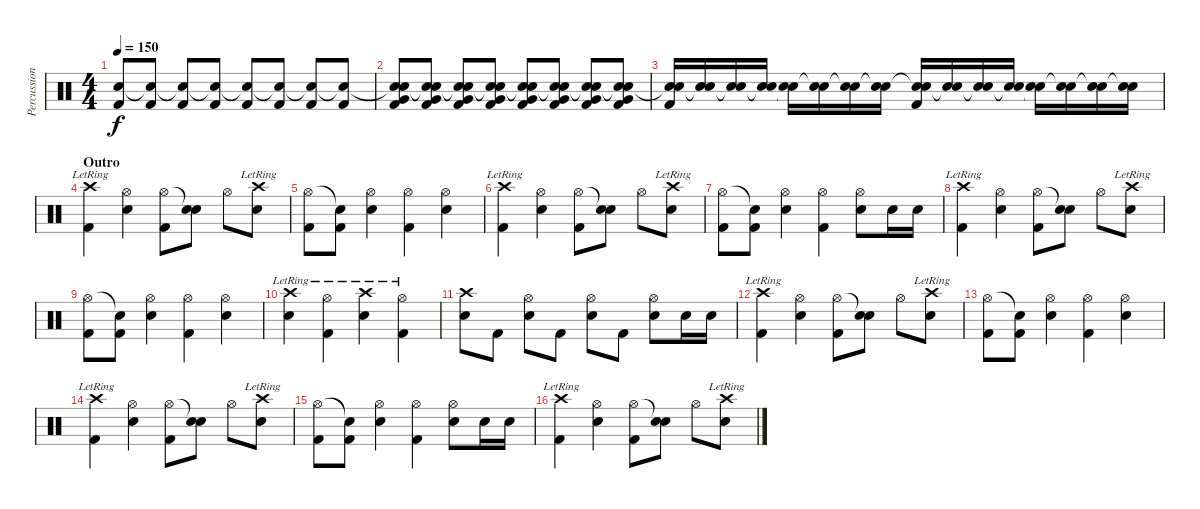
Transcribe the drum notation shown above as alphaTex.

\track ("Percussion" "Percussion") {instrument percussion}
\staff {score}
\articulation defaults
\ts (4 4)
\tempo 150
\clef neutral
\ks c
("Snare (hit)"{t} "Kick (hit) 2").8{dy f} ("Snare (hit)"{t} "Kick (hit) 2").8 ("Snare (hit)"{t} "Kick (hit) 2").8 ("Snare (hit)"{t} "Kick (hit) 2").8 ("Snare (hit)"{t} "Kick (hit) 2").8 ("Snare (hit)"{t} "Kick (hit) 2").8 ("Snare (hit)"{t} "Kick (hit) 2").8 ("Snare (hit)"{t} "Kick (hit) 2").8 |
("Snare (hit)"{t} "Very Low Tom (hit)" "Snare (hit) 2" "Kick (hit) 2").8 ("Snare (hit)"{t} "Very Low Tom (hit)" "Snare (hit) 2" "Kick (hit) 2").8 ("Snare (hit)"{t} "Very Low Tom (hit)" "Snare (hit) 2" "Kick (hit) 2").8 ("Snare (hit)"{t} "Very Low Tom (hit)" "Snare (hit) 2" "Kick (hit) 2").8 ("Snare (hit)"{t} "Very Low Tom (hit)" "Snare (hit) 2" "Kick (hit) 2").8 ("Snare (hit)"{t} "Very Low Tom (hit)" "Snare (hit) 2" "Kick (hit) 2").8 ("Snare (hit)"{t} "Very Low Tom (hit)" "Snare (hit) 2" "Kick (hit) 2").8 ("Snare (hit)"{t} "Very Low Tom (hit)" "Snare (hit) 2" "Kick (hit) 2").8 |
("Snare (hit)"{t} "Snare (hit) 2" "Kick (hit) 2").16 ("Snare (hit)"{t} "Snare (hit) 2").16 ("Snare (hit)"{t} "Snare (hit) 2").16 ("Snare (hit)"{t} "Snare (hit) 2").16 ("Snare (hit)"{t} "Snare (hit) 2").16 ("Snare (hit)"{t} "Snare (hit) 2").16 ("Snare (hit)"{t} "Snare (hit) 2").16 ("Snare (hit)"{t} "Snare (hit) 2").16 ("Snare (hit)"{t} "Snare (hit) 2" "Kick (hit) 2").16 ("Snare (hit)"{t} "Snare (hit) 2").16 ("Snare (hit)"{t} "Snare (hit) 2").16 ("Snare (hit)"{t} "Snare (hit) 2").16 ("Snare (hit)"{t} "Snare (hit) 2").16 ("Snare (hit)"{t} "Snare (hit) 2").16 ("Snare (hit)"{t} "Snare (hit) 2").16 ("Snare (hit)"{t} "Snare (hit) 2").16 |
\section ("" "Outro")
("Crash high (hit)"{lr} "Kick (hit) 2").4 ("Hi-Hat (open)" "Snare (hit) 2").4 ("Hi-Hat (open)" "Kick (hit) 2").8 ("Snare (hit)"{t} "Snare (hit) 2").8 "Hi-Hat (open)".8 ("Crash high (hit)"{lr} "Snare (hit) 2").8 |
("Hi-Hat (open)" "Kick (hit) 2").8 ("Snare (hit)"{t} "Kick (hit) 2").8 ("Hi-Hat (open)" "Snare (hit) 2").4 ("Hi-Hat (open)" "Kick (hit) 2").4 ("Hi-Hat (open)" "Snare (hit) 2").4 |
("Crash high (hit)"{lr} "Kick (hit) 2").4 ("Hi-Hat (open)" "Snare (hit) 2").4 ("Hi-Hat (open)" "Kick (hit) 2").8 ("Snare (hit)"{t} "Snare (hit) 2").8 "Hi-Hat (open)".8 ("Crash high (hit)"{lr} "Snare (hit) 2").8 |
("Hi-Hat (open)" "Kick (hit) 2").8 ("Snare (hit)"{t} "Kick (hit) 2").8 ("Hi-Hat (open)" "Snare (hit) 2").4 ("Hi-Hat (open)" "Kick (hit) 2").4 ("Hi-Hat (open)" "Snare (hit) 2").8 "Snare (hit) 2".16 "Snare (hit) 2".16 |
("Crash high (hit)"{lr} "Kick (hit) 2").4 ("Hi-Hat (open)" "Snare (hit) 2").4 ("Hi-Hat (open)" "Kick (hit) 2").8 ("Snare (hit)"{t} "Snare (hit) 2").8 "Hi-Hat (open)".8 ("Crash high (hit)"{lr} "Snare (hit) 2").8 |
("Hi-Hat (open)" "Kick (hit) 2").8 ("Snare (hit)"{t} "Kick (hit) 2").8 ("Hi-Hat (open)" "Snare (hit) 2").4 ("Hi-Hat (open)" "Kick (hit) 2").4 ("Hi-Hat (open)" "Snare (hit) 2").4 |
("Crash high (hit)"{lr} "Snare (hit) 2").4 ("Hi-Hat (open)"{lr} "Kick (hit) 2").4 ("Crash high (hit)"{lr} "Snare (hit) 2").4 ("Hi-Hat (open)"{lr} "Kick (hit) 2").4 |
("Crash high (hit)" "Snare (hit) 2").8 "Kick (hit) 2".8 ("Hi-Hat (open)" "Snare (hit) 2").8 "Kick (hit) 2".8 ("Hi-Hat (open)" "Snare (hit) 2").8 "Kick (hit) 2".8 ("Hi-Hat (open)" "Snare (hit) 2").8 "Snare (hit) 2".16 "Snare (hit) 2".16 |
("Crash high (hit)"{lr} "Kick (hit) 2").4 ("Hi-Hat (open)" "Snare (hit) 2").4 ("Hi-Hat (open)" "Kick (hit) 2").8 ("Snare (hit)"{t} "Snare (hit) 2").8 "Hi-Hat (open)".8 ("Crash high (hit)"{lr} "Snare (hit) 2").8 |
("Hi-Hat (open)" "Kick (hit) 2").8 ("Snare (hit)"{t} "Kick (hit) 2").8 ("Hi-Hat (open)" "Snare (hit) 2").4 ("Hi-Hat (open)" "Kick (hit) 2").4 ("Hi-Hat (open)" "Snare (hit) 2").4 |
("Crash high (hit)"{lr} "Kick (hit) 2").4 ("Hi-Hat (open)" "Snare (hit) 2").4 ("Hi-Hat (open)" "Kick (hit) 2").8 ("Snare (hit)"{t} "Snare (hit) 2").8 "Hi-Hat (open)".8 ("Crash high (hit)"{lr} "Snare (hit) 2").8 |
("Hi-Hat (open)" "Kick (hit) 2").8 ("Snare (hit)"{t} "Kick (hit) 2").8 ("Hi-Hat (open)" "Snare (hit) 2").4 ("Hi-Hat (open)" "Kick (hit) 2").4 ("Hi-Hat (open)" "Snare (hit) 2").8 "Snare (hit) 2".16 "Snare (hit) 2".16 |
("Crash high (hit)"{lr} "Kick (hit) 2").4 ("Hi-Hat (open)" "Snare (hit) 2").4 ("Hi-Hat (open)" "Kick (hit) 2").8 ("Snare (hit)"{t} "Snare (hit) 2").8 "Hi-Hat (open)".8 ("Crash high (hit)"{lr} "Snare (hit) 2").8
